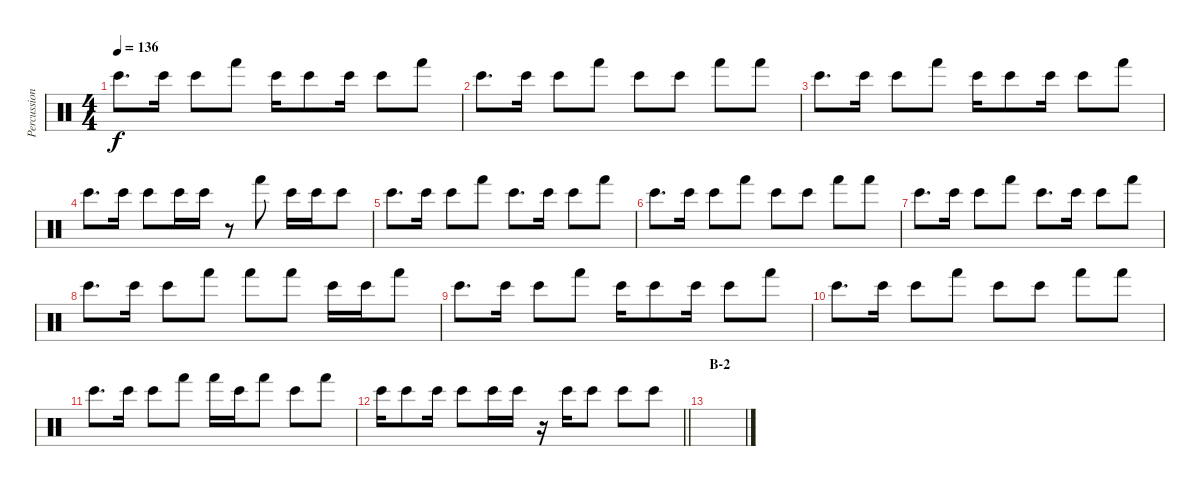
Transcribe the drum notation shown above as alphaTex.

\track ("Percussion" "Percussion") {instrument percussion}
\staff {score}
\articulation defaults
\ts (4 4)
\tempo 136
\clef neutral
\ks c "Bongo High (hit)".8{d dy f} "Bongo High (hit)".16 "Bongo High (hit)".8 "Hand (hit)".8 "Bongo High (hit)".16 "Bongo High (hit)".8 "Bongo High (hit)".16 "Bongo High (hit)".8 "Hand (hit)".8
|
"Bongo High (hit)".8{d} "Bongo High (hit)".16 "Bongo High (hit)".8 "Hand (hit)".8 "Bongo High (hit)".8 "Bongo High (hit)".8 "Hand (hit)".8 "Hand (hit)".8 |
"Bongo High (hit)".8{d} "Bongo High (hit)".16 "Bongo High (hit)".8 "Hand (hit)".8 "Bongo High (hit)".16 "Bongo High (hit)".8 "Bongo High (hit)".16 "Bongo High (hit)".8 "Hand (hit)".8 |
"Bongo High (hit)".8{d} "Bongo High (hit)".16 "Bongo High (hit)".8 "Bongo High (hit)".16 "Bongo High (hit)".16 r.8 "Hand (hit)".8 "Bongo High (hit)".16 "Bongo High (hit)".16 "Bongo High (hit)".8 |
"Bongo High (hit)".8{d} "Bongo High (hit)".16 "Bongo High (hit)".8 "Hand (hit)".8 "Bongo High (hit)".8{d} "Bongo High (hit)".16 "Bongo High (hit)".8 "Hand (hit)".8 |
"Bongo High (hit)".8{d} "Bongo High (hit)".16 "Bongo High (hit)".8 "Hand (hit)".8 "Bongo High (hit)".8 "Bongo High (hit)".8 "Hand (hit)".8 "Hand (hit)".8 |
"Bongo High (hit)".8{d} "Bongo High (hit)".16 "Bongo High (hit)".8 "Hand (hit)".8 "Bongo High (hit)".8{d} "Bongo High (hit)".16 "Bongo High (hit)".8 "Hand (hit)".8 |
"Bongo High (hit)".8{d} "Bongo High (hit)".16 "Bongo High (hit)".8 "Hand (hit)".8 "Hand (hit)".8 "Hand (hit)".8 "Bongo High (hit)".16 "Bongo High (hit)".16 "Hand (hit)".8 |
"Bongo High (hit)".8{d} "Bongo High (hit)".16 "Bongo High (hit)".8 "Hand (hit)".8 "Bongo High (hit)".16 "Bongo High (hit)".8 "Bongo High (hit)".16 "Bongo High (hit)".8 "Hand (hit)".8 |
"Bongo High (hit)".8{d} "Bongo High (hit)".16 "Bongo High (hit)".8 "Hand (hit)".8 "Bongo High (hit)".8 "Bongo High (hit)".8 "Hand (hit)".8 "Hand (hit)".8 |
"Bongo High (hit)".8{d} "Bongo High (hit)".16 "Bongo High (hit)".8 "Hand (hit)".8 "Hand (hit)".16 "Bongo High (hit)".16 "Hand (hit)".8 "Bongo High (hit)".8 "Hand (hit)".8 |
\barLineRight lightlight "Bongo High (hit)".16 "Bongo High (hit)".8 "Bongo High (hit)".16 "Bongo High (hit)".8 "Bongo High (hit)".16 "Bongo High (hit)".16
r.16 "Bongo High (hit)".16 "Bongo High (hit)".8 "Bongo High (hit)".8 "Bongo High (hit)".8 |
\section ("" "B-2")
